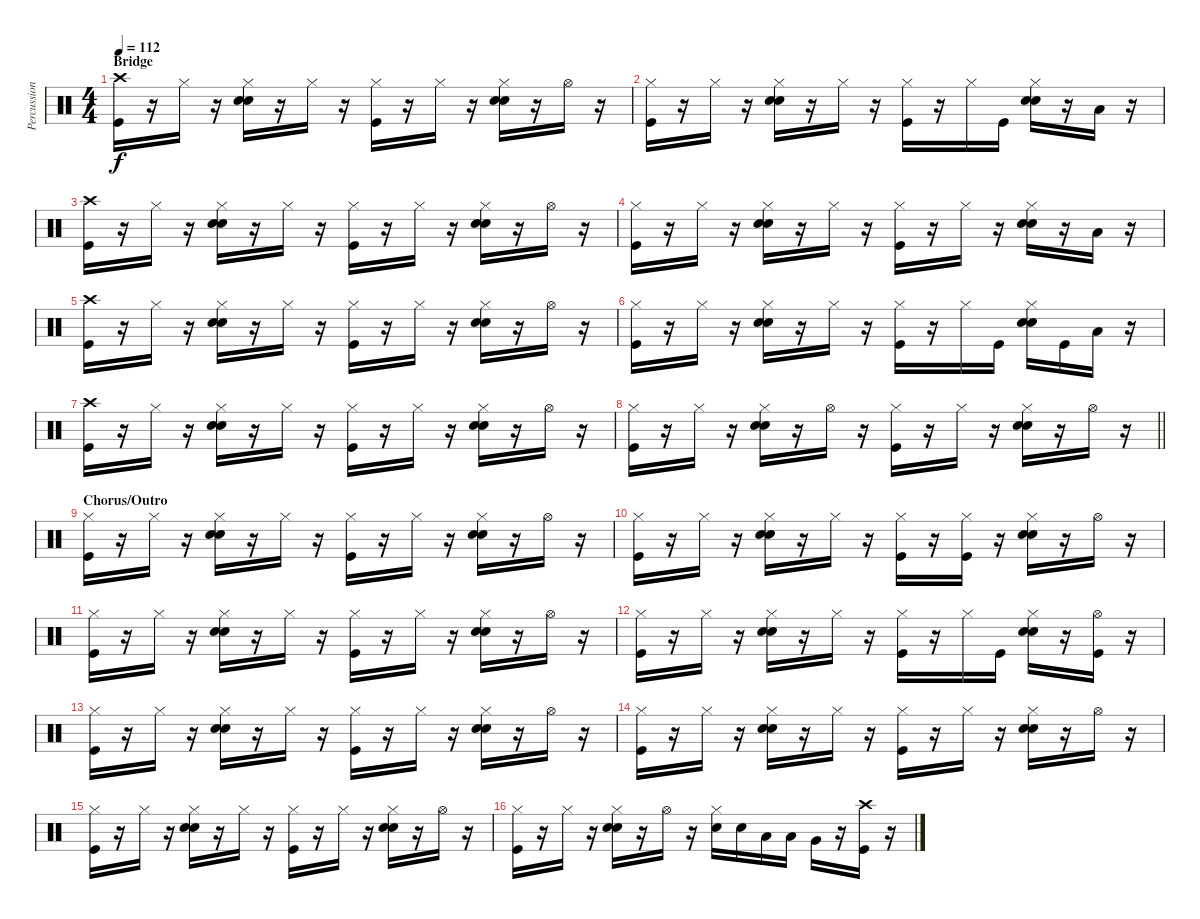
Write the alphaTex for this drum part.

\track ("Percussion" "Percussion") {instrument percussion}
\staff {score}
\articulation defaults
\ts (4 4)
\section ("" "Bridge")
\tempo 112
\clef neutral
\ks c
("Crash high (hit)" "Kick (hit)").16{dy f} r.16 "Hi-Hat (closed)".16 r.16 ("Hi-Hat (closed)" "Hand Clap (hit)" "Snare (hit) 2").16 r.16 "Hi-Hat (closed)".16 r.16 ("Hi-Hat (closed)" "Kick (hit)").16 r.16 "Hi-Hat (closed)".16 r.16 ("Hi-Hat (closed)" "Hand Clap (hit)" "Snare (hit) 2").16 r.16 "Hi-Hat (open)".16 r.16 |
("Hi-Hat (closed)" "Kick (hit)").16 r.16 "Hi-Hat (closed)".16 r.16 ("Hi-Hat (closed)" "Hand Clap (hit)" "Snare (hit) 2").16 r.16 "Hi-Hat (closed)".16 r.16 ("Hi-Hat (closed)" "Kick (hit)").16 r.16 "Hi-Hat (closed)".16 "Kick (hit)".16 ("Hi-Hat (closed)" "Hand Clap (hit)" "Snare (hit) 2").16 r.16 "Low Tom (hit)".16 r.16 |
("Crash high (hit)" "Kick (hit)").16 r.16 "Hi-Hat (closed)".16 r.16 ("Hi-Hat (closed)" "Hand Clap (hit)" "Snare (hit) 2").16 r.16 "Hi-Hat (closed)".16 r.16 ("Hi-Hat (closed)" "Kick (hit)").16 r.16 "Hi-Hat (closed)".16 r.16 ("Hi-Hat (closed)" "Hand Clap (hit)" "Snare (hit) 2").16 r.16 "Hi-Hat (open)".16 r.16 |
("Hi-Hat (closed)" "Kick (hit)").16 r.16 "Hi-Hat (closed)".16 r.16 ("Hi-Hat (closed)" "Hand Clap (hit)" "Snare (hit) 2").16 r.16 "Hi-Hat (closed)".16 r.16 ("Hi-Hat (closed)" "Kick (hit)").16 r.16 "Hi-Hat (closed)".16 r.16 ("Hi-Hat (closed)" "Hand Clap (hit)" "Snare (hit) 2").16 r.16 "Low Tom (hit)".16 r.16 |
("Crash high (hit)" "Kick (hit)").16 r.16 "Hi-Hat (closed)".16 r.16 ("Hi-Hat (closed)" "Hand Clap (hit)" "Snare (hit) 2").16 r.16 "Hi-Hat (closed)".16 r.16 ("Hi-Hat (closed)" "Kick (hit)").16 r.16 "Hi-Hat (closed)".16 r.16 ("Hi-Hat (closed)" "Hand Clap (hit)" "Snare (hit) 2").16 r.16 "Hi-Hat (open)".16 r.16 |
("Hi-Hat (closed)" "Kick (hit)").16 r.16 "Hi-Hat (closed)".16 r.16 ("Hi-Hat (closed)" "Hand Clap (hit)" "Snare (hit) 2").16 r.16 "Hi-Hat (closed)".16 r.16 ("Hi-Hat (closed)" "Kick (hit)").16 r.16 "Hi-Hat (closed)".16 "Kick (hit)".16 ("Hi-Hat (closed)" "Hand Clap (hit)" "Snare (hit) 2").16 "Kick (hit)".16 "Low Tom (hit)".16 r.16 |
("Crash high (hit)" "Kick (hit)").16 r.16 "Hi-Hat (closed)".16 r.16 ("Hi-Hat (closed)" "Hand Clap (hit)" "Snare (hit) 2").16 r.16 "Hi-Hat (closed)".16 r.16 ("Hi-Hat (closed)" "Kick (hit)").16 r.16 "Hi-Hat (closed)".16 r.16 ("Hi-Hat (closed)" "Hand Clap (hit)" "Snare (hit) 2").16 r.16 "Hi-Hat (open)".16 r.16 |
\barLineRight lightlight
("Hi-Hat (closed)" "Kick (hit)").16 r.16 "Hi-Hat (closed)".16 r.16 ("Hi-Hat (closed)" "Hand Clap (hit)" "Snare (hit) 2").16 r.16 "Hi-Hat (open)".16 r.16 ("Hi-Hat (closed)" "Kick (hit)").16 r.16 "Hi-Hat (closed)".16 r.16 ("Hi-Hat (closed)" "Hand Clap (hit)" "Snare (hit) 2").16 r.16 "Hi-Hat (open)".16 r.16 |
\section ("" "Chorus/Outro")
("Hi-Hat (closed)" "Kick (hit)").16 r.16 "Hi-Hat (closed)".16 r.16 ("Hi-Hat (closed)" "Hand Clap (hit)" "Snare (hit) 2").16 r.16 "Hi-Hat (closed)".16 r.16 ("Hi-Hat (closed)" "Kick (hit)").16 r.16 "Hi-Hat (closed)".16 r.16 ("Hi-Hat (closed)" "Hand Clap (hit)" "Snare (hit) 2").16 r.16 "Hi-Hat (open)".16 r.16 |
("Hi-Hat (closed)" "Kick (hit)").16 r.16 "Hi-Hat (closed)".16 r.16 ("Hi-Hat (closed)" "Hand Clap (hit)" "Snare (hit) 2").16 r.16 "Hi-Hat (closed)".16 r.16 ("Hi-Hat (closed)" "Kick (hit)").16 r.16 ("Hi-Hat (closed)" "Kick (hit)").16 r.16 ("Hi-Hat (closed)" "Hand Clap (hit)" "Snare (hit) 2").16 r.16 "Hi-Hat (open)".16 r.16 |
("Hi-Hat (closed)" "Kick (hit)").16 r.16 "Hi-Hat (closed)".16 r.16 ("Hi-Hat (closed)" "Hand Clap (hit)" "Snare (hit) 2").16 r.16 "Hi-Hat (closed)".16 r.16 ("Hi-Hat (closed)" "Kick (hit)").16 r.16 "Hi-Hat (closed)".16 r.16 ("Hi-Hat (closed)" "Hand Clap (hit)" "Snare (hit) 2").16 r.16 "Hi-Hat (open)".16 r.16 |
("Hi-Hat (closed)" "Kick (hit)").16 r.16 "Hi-Hat (closed)".16 r.16 ("Hi-Hat (closed)" "Hand Clap (hit)" "Snare (hit) 2").16 r.16 "Hi-Hat (closed)".16 r.16 ("Hi-Hat (closed)" "Kick (hit)").16 r.16 "Hi-Hat (closed)".16 "Kick (hit)".16 ("Hi-Hat (closed)" "Hand Clap (hit)" "Snare (hit) 2").16 r.16 ("Hi-Hat (open)" "Kick (hit)").16 r.16 |
("Hi-Hat (closed)" "Kick (hit)").16 r.16 "Hi-Hat (closed)".16 r.16 ("Hi-Hat (closed)" "Hand Clap (hit)" "Snare (hit) 2").16 r.16 "Hi-Hat (closed)".16 r.16 ("Hi-Hat (closed)" "Kick (hit)").16 r.16 "Hi-Hat (closed)".16 r.16 ("Hi-Hat (closed)" "Hand Clap (hit)" "Snare (hit) 2").16 r.16 "Hi-Hat (open)".16 r.16 |
("Hi-Hat (closed)" "Kick (hit)").16 r.16 "Hi-Hat (closed)".16 r.16 ("Hi-Hat (closed)" "Hand Clap (hit)" "Snare (hit) 2").16 r.16 "Hi-Hat (closed)".16 r.16 ("Hi-Hat (closed)" "Kick (hit)").16 r.16 "Hi-Hat (closed)".16 r.16 ("Hi-Hat (closed)" "Hand Clap (hit)" "Snare (hit) 2").16 r.16 "Hi-Hat (open)".16 r.16 |
("Hi-Hat (closed)" "Kick (hit)").16 r.16 "Hi-Hat (closed)".16 r.16 ("Hi-Hat (closed)" "Hand Clap (hit)" "Snare (hit) 2").16 r.16 "Hi-Hat (closed)".16 r.16 ("Hi-Hat (closed)" "Kick (hit)").16 r.16 "Hi-Hat (closed)".16 r.16 ("Hi-Hat (closed)" "Hand Clap (hit)" "Snare (hit) 2").16 r.16 "Hi-Hat (open)".16 r.16 |
("Hi-Hat (closed)" "Kick (hit)").16 r.16 "Hi-Hat (closed)".16 r.16 ("Hi-Hat (closed)" "Hand Clap (hit)" "Snare (hit) 2").16 r.16 "Hi-Hat (open)".16 r.16 ("Hi-Hat (closed)" "Snare (hit) 2").16 "Snare (hit) 2".16 "Low Tom (hit)".16 "Low Tom (hit)".16 "Very Low Tom (hit)".16 r.16 ("Crash high (hit)" "Kick (hit)").16 r.16
